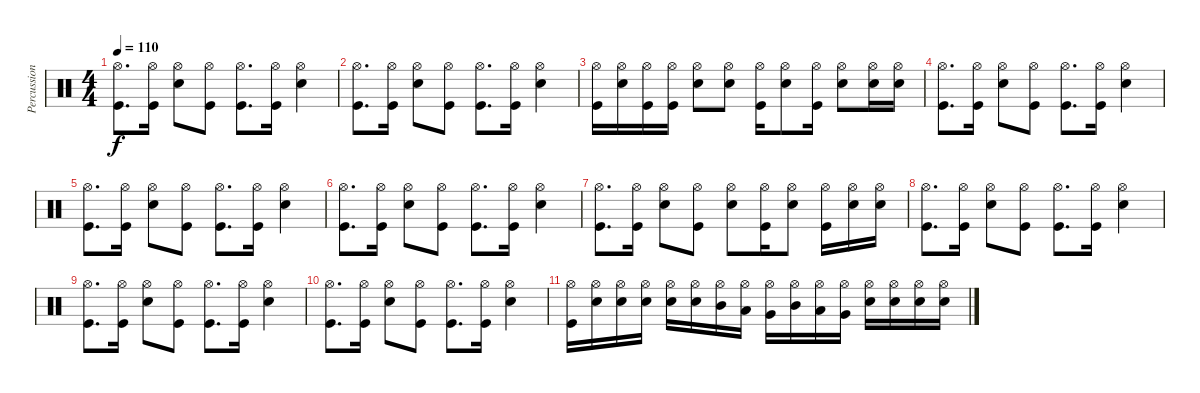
\track ("Percussions" "Percussion") {instrument percussion}
\staff {score}
\articulation defaults
\ts (4 4)
\tempo 110
\clef neutral
\ks c
("Hi-Hat (open)" "Kick (hit)").8{d dy f} ("Hi-Hat (open)" "Kick (hit)").16 ("Hi-Hat (open)" "Snare (hit) 2").8 ("Hi-Hat (open)" "Kick (hit)").8 ("Hi-Hat (open)" "Kick (hit)").8{d} ("Hi-Hat (open)" "Kick (hit)").16 ("Hi-Hat (open)" "Snare (hit) 2").4 |
("Hi-Hat (open)" "Kick (hit)").8{d} ("Hi-Hat (open)" "Kick (hit)").16 ("Hi-Hat (open)" "Snare (hit) 2").8 ("Hi-Hat (open)" "Kick (hit)").8 ("Hi-Hat (open)" "Kick (hit)").8{d} ("Hi-Hat (open)" "Kick (hit)").16 ("Hi-Hat (open)" "Snare (hit) 2").4 |
("Hi-Hat (open)" "Kick (hit)").16 ("Hi-Hat (open)" "Snare (hit) 2").16 ("Hi-Hat (open)" "Kick (hit)").16 ("Hi-Hat (open)" "Kick (hit)").16 ("Hi-Hat (open)" "Snare (hit) 2").8 ("Hi-Hat (open)" "Snare (hit) 2").8 ("Hi-Hat (open)" "Kick (hit)").16 ("Hi-Hat (open)" "Snare (hit) 2").8 ("Hi-Hat (open)" "Kick (hit)").16 ("Hi-Hat (open)" "Snare (hit) 2").8 ("Hi-Hat (open)" "Snare (hit) 2").16 ("Hi-Hat (open)" "Snare (hit) 2").16 |
("Hi-Hat (open)" "Kick (hit)").8{d} ("Hi-Hat (open)" "Kick (hit)").16 ("Hi-Hat (open)" "Snare (hit) 2").8 ("Hi-Hat (open)" "Kick (hit)").8 ("Hi-Hat (open)" "Kick (hit)").8{d} ("Hi-Hat (open)" "Kick (hit)").16 ("Hi-Hat (open)" "Snare (hit) 2").4 |
("Hi-Hat (open)" "Kick (hit)").8{d} ("Hi-Hat (open)" "Kick (hit)").16 ("Hi-Hat (open)" "Snare (hit) 2").8 ("Hi-Hat (open)" "Kick (hit)").8 ("Hi-Hat (open)" "Kick (hit)").8{d} ("Hi-Hat (open)" "Kick (hit)").16 ("Hi-Hat (open)" "Snare (hit) 2").4 |
("Hi-Hat (open)" "Kick (hit)").8{d} ("Hi-Hat (open)" "Kick (hit)").16 ("Hi-Hat (open)" "Snare (hit) 2").8 ("Hi-Hat (open)" "Kick (hit)").8 ("Hi-Hat (open)" "Kick (hit)").8{d} ("Hi-Hat (open)" "Kick (hit)").16 ("Hi-Hat (open)" "Snare (hit) 2").4 |
("Hi-Hat (open)" "Kick (hit)").8{d} ("Hi-Hat (open)" "Kick (hit)").16 ("Hi-Hat (open)" "Snare (hit) 2").8 ("Hi-Hat (open)" "Kick (hit)").8 ("Hi-Hat (open)" "Snare (hit) 2").8 ("Hi-Hat (open)" "Kick (hit)").16 ("Hi-Hat (open)" "Snare (hit) 2").8 ("Hi-Hat (open)" "Kick (hit)").16 ("Hi-Hat (open)" "Snare (hit) 2").16 ("Hi-Hat (open)" "Snare (hit) 2").16 |
("Hi-Hat (open)" "Kick (hit)").8{d} ("Hi-Hat (open)" "Kick (hit)").16 ("Hi-Hat (open)" "Snare (hit) 2").8 ("Hi-Hat (open)" "Kick (hit)").8 ("Hi-Hat (open)" "Kick (hit)").8{d} ("Hi-Hat (open)" "Kick (hit)").16 ("Hi-Hat (open)" "Snare (hit) 2").4 |
("Hi-Hat (open)" "Kick (hit)").8{d} ("Hi-Hat (open)" "Kick (hit)").16 ("Hi-Hat (open)" "Snare (hit) 2").8 ("Hi-Hat (open)" "Kick (hit)").8 ("Hi-Hat (open)" "Kick (hit)").8{d} ("Hi-Hat (open)" "Kick (hit)").16 ("Hi-Hat (open)" "Snare (hit) 2").4 |
("Hi-Hat (open)" "Kick (hit)").8{d} ("Hi-Hat (open)" "Kick (hit)").16 ("Hi-Hat (open)" "Snare (hit) 2").8 ("Hi-Hat (open)" "Kick (hit)").8 ("Hi-Hat (open)" "Kick (hit)").8{d} ("Hi-Hat (open)" "Kick (hit)").16 ("Hi-Hat (open)" "Snare (hit) 2").4 |
("Hi-Hat (open)" "Kick (hit)").16 ("Hi-Hat (open)" "Snare (hit) 2").16 ("Hi-Hat (open)" "Snare (hit) 2").16 ("Hi-Hat (open)" "Snare (hit) 2").16 ("Hi-Hat (open)" "Snare (hit) 2").16 ("Hi-Hat (open)" "Snare (hit) 2").16 ("Hi-Hat (open)" "Mid Tom (hit)").16 ("Hi-Hat (open)" "Low Tom (hit)").16 ("Hi-Hat (open)" "Very Low Tom (hit)").16 ("Hi-Hat (open)" "Mid Tom (hit)").16 ("Hi-Hat (open)" "Low Tom (hit)").16 ("Hi-Hat (open)" "Very Low Tom (hit)").16 ("Hi-Hat (open)" "Snare (hit) 2").16 ("Hi-Hat (open)" "Snare (hit) 2").16 ("Hi-Hat (open)" "Snare (hit) 2").16 ("Hi-Hat (open)" "Snare (hit) 2").16
